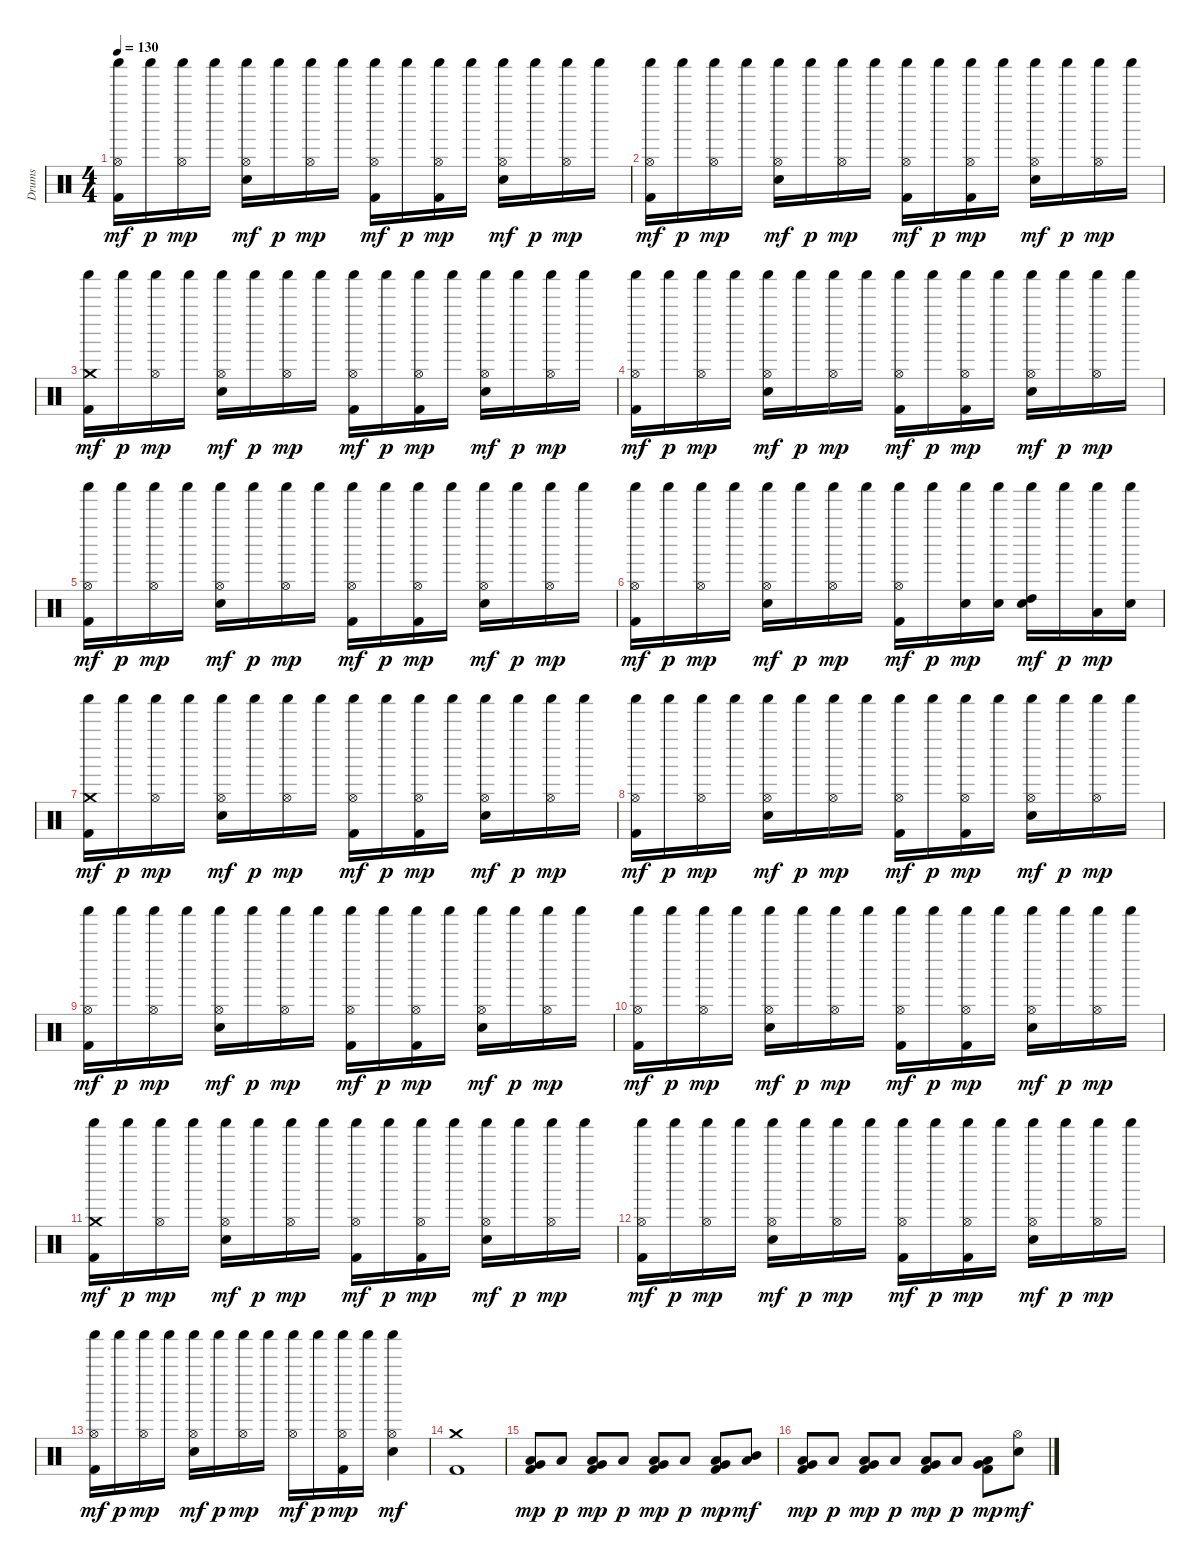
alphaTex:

\track ("Drums" "Drums") {instrument percussion}
\staff {score}
\articulation defaults
\ts (4 4)
\tempo 130
\clef neutral
\ks c
("Kick (hit) 2" "Hi-Hat (open)" "Shaker (hit)").16{dy mf} "Shaker (hit)".16{dy p} ("Hi-Hat (open)" "Shaker (hit)").16{dy mp} "Shaker (hit)".16 ("Snare (hit) 2" "Hi-Hat (open)" "Shaker (hit)").16{dy mf} "Shaker (hit)".16{dy p} ("Hi-Hat (open)" "Shaker (hit)").16{dy mp} "Shaker (hit)".16 ("Kick (hit) 2" "Hi-Hat (open)" "Shaker (hit)").16{dy mf} "Shaker (hit)".16{dy p} ("Kick (hit) 2" "Hi-Hat (open)" "Shaker (hit)").16{dy mp} "Shaker (hit)".16 ("Snare (hit) 2" "Hi-Hat (open)" "Shaker (hit)").16{dy mf} "Shaker (hit)".16{dy p} ("Hi-Hat (open)" "Shaker (hit)").16{dy mp} "Shaker (hit)".16 |
("Kick (hit) 2" "Hi-Hat (open)" "Shaker (hit)").16{dy mf} "Shaker (hit)".16{dy p} ("Hi-Hat (open)" "Shaker (hit)").16{dy mp} "Shaker (hit)".16 ("Snare (hit) 2" "Hi-Hat (open)" "Shaker (hit)").16{dy mf} "Shaker (hit)".16{dy p} ("Hi-Hat (open)" "Shaker (hit)").16{dy mp} "Shaker (hit)".16 ("Kick (hit) 2" "Hi-Hat (open)" "Shaker (hit)").16{dy mf} "Shaker (hit)".16{dy p} ("Kick (hit) 2" "Hi-Hat (open)" "Shaker (hit)").16{dy mp} "Shaker (hit)".16 ("Snare (hit) 2" "Hi-Hat (open)" "Shaker (hit)").16{dy mf} "Shaker (hit)".16{dy p} ("Hi-Hat (open)" "Shaker (hit)").16{dy mp} "Shaker (hit)".16 |
("Kick (hit) 2" "Crash medium (hit)" "Shaker (hit)").16{dy mf} "Shaker (hit)".16{dy p} ("Hi-Hat (open)" "Shaker (hit)").16{dy mp} "Shaker (hit)".16 ("Snare (hit) 2" "Hi-Hat (open)" "Shaker (hit)").16{dy mf} "Shaker (hit)".16{dy p} ("Hi-Hat (open)" "Shaker (hit)").16{dy mp} "Shaker (hit)".16 ("Kick (hit) 2" "Hi-Hat (open)" "Shaker (hit)").16{dy mf} "Shaker (hit)".16{dy p} ("Kick (hit) 2" "Hi-Hat (open)" "Shaker (hit)").16{dy mp} "Shaker (hit)".16 ("Snare (hit) 2" "Hi-Hat (open)" "Shaker (hit)").16{dy mf} "Shaker (hit)".16{dy p} ("Hi-Hat (open)" "Shaker (hit)").16{dy mp} "Shaker (hit)".16 |
("Kick (hit) 2" "Hi-Hat (open)" "Shaker (hit)").16{dy mf} "Shaker (hit)".16{dy p} ("Hi-Hat (open)" "Shaker (hit)").16{dy mp} "Shaker (hit)".16 ("Snare (hit) 2" "Hi-Hat (open)" "Shaker (hit)").16{dy mf} "Shaker (hit)".16{dy p} ("Hi-Hat (open)" "Shaker (hit)").16{dy mp} "Shaker (hit)".16 ("Kick (hit) 2" "Hi-Hat (open)" "Shaker (hit)").16{dy mf} "Shaker (hit)".16{dy p} ("Kick (hit) 2" "Hi-Hat (open)" "Shaker (hit)").16{dy mp} "Shaker (hit)".16 ("Snare (hit) 2" "Hi-Hat (open)" "Shaker (hit)").16{dy mf} "Shaker (hit)".16{dy p} ("Hi-Hat (open)" "Shaker (hit)").16{dy mp} "Shaker (hit)".16 |
("Kick (hit) 2" "Hi-Hat (open)" "Shaker (hit)").16{dy mf} "Shaker (hit)".16{dy p} ("Hi-Hat (open)" "Shaker (hit)").16{dy mp} "Shaker (hit)".16 ("Snare (hit) 2" "Hi-Hat (open)" "Shaker (hit)").16{dy mf} "Shaker (hit)".16{dy p} ("Hi-Hat (open)" "Shaker (hit)").16{dy mp} "Shaker (hit)".16 ("Kick (hit) 2" "Hi-Hat (open)" "Shaker (hit)").16{dy mf} "Shaker (hit)".16{dy p} ("Kick (hit) 2" "Hi-Hat (open)" "Shaker (hit)").16{dy mp} "Shaker (hit)".16 ("Snare (hit) 2" "Hi-Hat (open)" "Shaker (hit)").16{dy mf} "Shaker (hit)".16{dy p} ("Hi-Hat (open)" "Shaker (hit)").16{dy mp} "Shaker (hit)".16 |
("Kick (hit) 2" "Hi-Hat (open)" "Shaker (hit)").16{dy mf} "Shaker (hit)".16{dy p} ("Hi-Hat (open)" "Shaker (hit)").16{dy mp} "Shaker (hit)".16 ("Snare (hit) 2" "Hi-Hat (open)" "Shaker (hit)").16{dy mf} "Shaker (hit)".16{dy p} ("Hi-Hat (open)" "Shaker (hit)").16{dy mp} "Shaker (hit)".16 ("Kick (hit) 2" "Hi-Hat (open)" "Shaker (hit)").16{dy mf} "Shaker (hit)".16{dy p} ("Snare (hit) 2" "Shaker (hit)").16{dy mp} ("Snare (hit) 2" "Shaker (hit)").16 ("Snare (hit) 2" "High Tom (hit)" "Shaker (hit)").16{dy mf} "Shaker (hit)".16{dy p} ("Low Tom (hit)" "Shaker (hit)").16{dy mp} ("Snare (hit) 2" "Shaker (hit)").16 |
("Kick (hit) 2" "Crash medium (hit)" "Shaker (hit)").16{dy mf} "Shaker (hit)".16{dy p} ("Hi-Hat (open)" "Shaker (hit)").16{dy mp} "Shaker (hit)".16 ("Snare (hit) 2" "Hi-Hat (open)" "Shaker (hit)").16{dy mf} "Shaker (hit)".16{dy p} ("Hi-Hat (open)" "Shaker (hit)").16{dy mp} "Shaker (hit)".16 ("Kick (hit) 2" "Hi-Hat (open)" "Shaker (hit)").16{dy mf} "Shaker (hit)".16{dy p} ("Kick (hit) 2" "Hi-Hat (open)" "Shaker (hit)").16{dy mp} "Shaker (hit)".16 ("Snare (hit) 2" "Hi-Hat (open)" "Shaker (hit)").16{dy mf} "Shaker (hit)".16{dy p} ("Hi-Hat (open)" "Shaker (hit)").16{dy mp} "Shaker (hit)".16 |
("Kick (hit) 2" "Hi-Hat (open)" "Shaker (hit)").16{dy mf} "Shaker (hit)".16{dy p} ("Hi-Hat (open)" "Shaker (hit)").16{dy mp} "Shaker (hit)".16 ("Snare (hit) 2" "Hi-Hat (open)" "Shaker (hit)").16{dy mf} "Shaker (hit)".16{dy p} ("Hi-Hat (open)" "Shaker (hit)").16{dy mp} "Shaker (hit)".16 ("Kick (hit) 2" "Hi-Hat (open)" "Shaker (hit)").16{dy mf} "Shaker (hit)".16{dy p} ("Kick (hit) 2" "Hi-Hat (open)" "Shaker (hit)").16{dy mp} "Shaker (hit)".16 ("Snare (hit) 2" "Hi-Hat (open)" "Shaker (hit)").16{dy mf} "Shaker (hit)".16{dy p} ("Hi-Hat (open)" "Shaker (hit)").16{dy mp} "Shaker (hit)".16 |
("Kick (hit) 2" "Hi-Hat (open)" "Shaker (hit)").16{dy mf} "Shaker (hit)".16{dy p} ("Hi-Hat (open)" "Shaker (hit)").16{dy mp} "Shaker (hit)".16 ("Snare (hit) 2" "Hi-Hat (open)" "Shaker (hit)").16{dy mf} "Shaker (hit)".16{dy p} ("Hi-Hat (open)" "Shaker (hit)").16{dy mp} "Shaker (hit)".16 ("Kick (hit) 2" "Hi-Hat (open)" "Shaker (hit)").16{dy mf} "Shaker (hit)".16{dy p} ("Kick (hit) 2" "Hi-Hat (open)" "Shaker (hit)").16{dy mp} "Shaker (hit)".16 ("Snare (hit) 2" "Hi-Hat (open)" "Shaker (hit)").16{dy mf} "Shaker (hit)".16{dy p} ("Hi-Hat (open)" "Shaker (hit)").16{dy mp} "Shaker (hit)".16 |
("Kick (hit) 2" "Hi-Hat (open)" "Shaker (hit)").16{dy mf} "Shaker (hit)".16{dy p} ("Hi-Hat (open)" "Shaker (hit)").16{dy mp} "Shaker (hit)".16 ("Snare (hit) 2" "Hi-Hat (open)" "Shaker (hit)").16{dy mf} "Shaker (hit)".16{dy p} ("Hi-Hat (open)" "Shaker (hit)").16{dy mp} "Shaker (hit)".16 ("Kick (hit) 2" "Hi-Hat (open)" "Shaker (hit)").16{dy mf} "Shaker (hit)".16{dy p} ("Kick (hit) 2" "Hi-Hat (open)" "Shaker (hit)").16{dy mp} "Shaker (hit)".16 ("Snare (hit) 2" "Hi-Hat (open)" "Shaker (hit)").16{dy mf} "Shaker (hit)".16{dy p} ("Hi-Hat (open)" "Shaker (hit)").16{dy mp} "Shaker (hit)".16 |
("Kick (hit) 2" "Crash medium (hit)" "Shaker (hit)").16{dy mf} "Shaker (hit)".16{dy p} ("Hi-Hat (open)" "Shaker (hit)").16{dy mp} "Shaker (hit)".16 ("Snare (hit) 2" "Hi-Hat (open)" "Shaker (hit)").16{dy mf} "Shaker (hit)".16{dy p} ("Hi-Hat (open)" "Shaker (hit)").16{dy mp} "Shaker (hit)".16 ("Kick (hit) 2" "Hi-Hat (open)" "Shaker (hit)").16{dy mf} "Shaker (hit)".16{dy p} ("Kick (hit) 2" "Hi-Hat (open)" "Shaker (hit)").16{dy mp} "Shaker (hit)".16 ("Snare (hit) 2" "Hi-Hat (open)" "Shaker (hit)").16{dy mf} "Shaker (hit)".16{dy p} ("Hi-Hat (open)" "Shaker (hit)").16{dy mp} "Shaker (hit)".16 |
("Kick (hit) 2" "Hi-Hat (open)" "Shaker (hit)").16{dy mf} "Shaker (hit)".16{dy p} ("Hi-Hat (open)" "Shaker (hit)").16{dy mp} "Shaker (hit)".16 ("Snare (hit) 2" "Hi-Hat (open)" "Shaker (hit)").16{dy mf} "Shaker (hit)".16{dy p} ("Hi-Hat (open)" "Shaker (hit)").16{dy mp} "Shaker (hit)".16 ("Kick (hit) 2" "Hi-Hat (open)" "Shaker (hit)").16{dy mf} "Shaker (hit)".16{dy p} ("Kick (hit) 2" "Hi-Hat (open)" "Shaker (hit)").16{dy mp} "Shaker (hit)".16 ("Snare (hit) 2" "Hi-Hat (open)" "Shaker (hit)").16{dy mf} "Shaker (hit)".16{dy p} ("Hi-Hat (open)" "Shaker (hit)").16{dy mp} "Shaker (hit)".16 |
("Kick (hit) 2" "Hi-Hat (open)" "Shaker (hit)").16{dy mf} "Shaker (hit)".16{dy p} ("Hi-Hat (open)" "Shaker (hit)").16{dy mp} "Shaker (hit)".16 ("Snare (hit) 2" "Hi-Hat (open)" "Shaker (hit)").16{dy mf} "Shaker (hit)".16{dy p} ("Hi-Hat (open)" "Shaker (hit)").16{dy mp} "Shaker (hit)".16 ("Hi-Hat (open)" "Shaker (hit)").16{dy mf} "Shaker (hit)".16{dy p} ("Kick (hit) 2" "Hi-Hat (open)" "Shaker (hit)").16{dy mp} "Shaker (hit)".16 ("Snare (hit) 2" "Hi-Hat (open)" "Shaker (hit)").4{dy mf} |
("Kick (hit) 2" "Crash medium (hit)").1 |
("Kick (hit) 2" "Low Floor Tom (hit)" "Very Low Tom (hit)").8{dy mp} "Low Floor Tom (hit)".8{dy p} ("Kick (hit) 2" "Low Floor Tom (hit)" "Very Low Tom (hit)").8{dy mp} "Low Floor Tom (hit)".8{dy p} ("Kick (hit) 2" "Low Floor Tom (hit)" "Very Low Tom (hit)").8{dy mp} "Low Floor Tom (hit)".8{dy p} ("Kick (hit) 2" "Low Floor Tom (hit)" "Very Low Tom (hit)").8{dy mp} ("Low Tom (hit)" "Mid Tom (hit)").8{dy mf} |
("Kick (hit) 2" "Low Floor Tom (hit)" "Very Low Tom (hit)").8{dy mp} "Low Floor Tom (hit)".8{dy p} ("Kick (hit) 2" "Low Floor Tom (hit)" "Very Low Tom (hit)").8{dy mp} "Low Floor Tom (hit)".8{dy p} ("Kick (hit) 2" "Low Floor Tom (hit)" "Very Low Tom (hit)").8{dy mp} "Low Floor Tom (hit)".8{dy p} ("Kick (hit) 2" "Low Floor Tom (hit)" "Very Low Tom (hit)").8{dy mp} ("Snare (hit) 2" "Hi-Hat (open)").8{dy mf}
